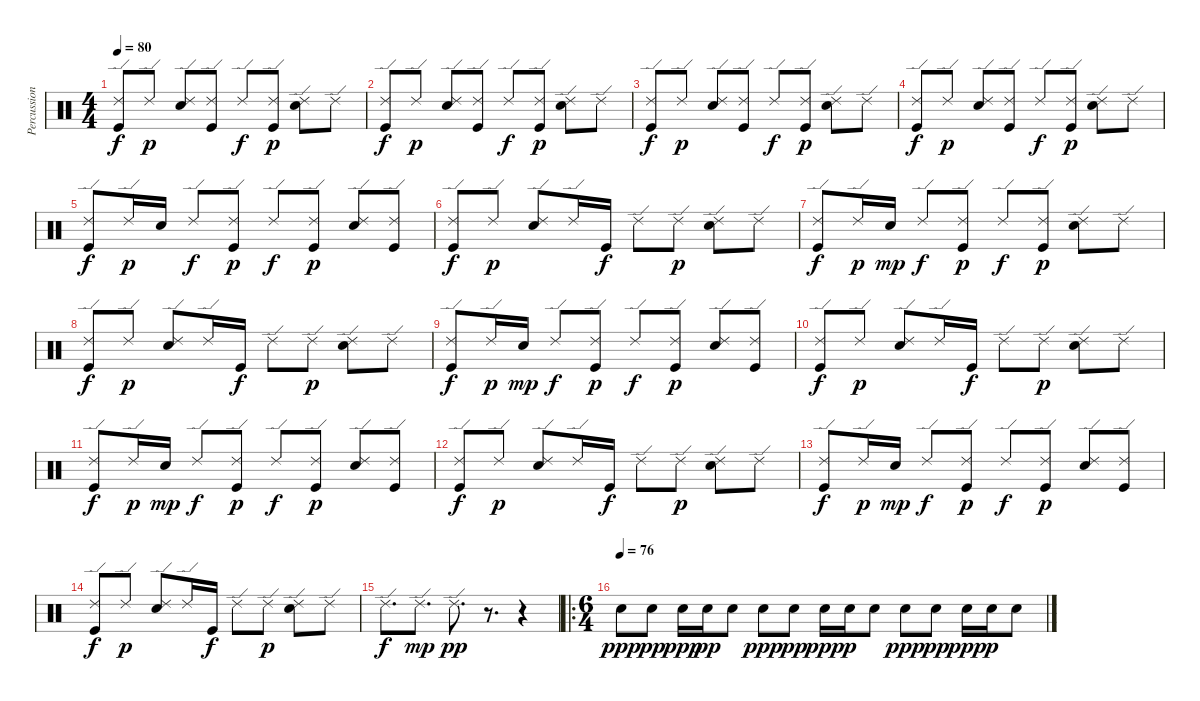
\track ("Percussion" "Percussion") {instrument percussion}
\staff {score}
\articulation defaults
\ts (4 4)
\tempo 80
\clef neutral
\ks c
("Ride (edge) 2" "Kick (hit)").8{dy f} "Ride (edge) 2".8{dy p} ("Ride (edge) 2" "Snare (hit) 2").8 ("Ride (edge) 2" "Kick (hit)").8 "Ride (edge) 2".8{dy f} ("Ride (edge) 2" "Kick (hit)").8{dy p} ("Ride (edge) 2" "Snare (hit) 2").8 "Ride (edge) 2".8 |
("Ride (edge) 2" "Kick (hit)").8{dy f} "Ride (edge) 2".8{dy p} ("Ride (edge) 2" "Snare (hit) 2").8 ("Ride (edge) 2" "Kick (hit)").8 "Ride (edge) 2".8{dy f} ("Ride (edge) 2" "Kick (hit)").8{dy p} ("Ride (edge) 2" "Snare (hit) 2").8 "Ride (edge) 2".8 |
("Ride (edge) 2" "Kick (hit)").8{dy f} "Ride (edge) 2".8{dy p} ("Ride (edge) 2" "Snare (hit) 2").8 ("Ride (edge) 2" "Kick (hit)").8 "Ride (edge) 2".8{dy f} ("Ride (edge) 2" "Kick (hit)").8{dy p} ("Ride (edge) 2" "Snare (hit) 2").8 "Ride (edge) 2".8 |
("Ride (edge) 2" "Kick (hit)").8{dy f} "Ride (edge) 2".8{dy p} ("Ride (edge) 2" "Snare (hit) 2").8 ("Ride (edge) 2" "Kick (hit)").8 "Ride (edge) 2".8{dy f} ("Ride (edge) 2" "Kick (hit)").8{dy p} ("Ride (edge) 2" "Snare (hit) 2").8 "Ride (edge) 2".8 |
("Ride (edge) 2" "Kick (hit)").8{dy f} "Ride (edge) 2".16{dy p} "Snare (hit) 2".16 "Ride (edge) 2".8{dy f} ("Ride (edge) 2" "Kick (hit)").8{dy p} "Ride (edge) 2".8{dy f} ("Ride (edge) 2" "Kick (hit)").8{dy p} ("Ride (edge) 2" "Snare (hit) 2").8 ("Ride (edge) 2" "Kick (hit)").8 |
("Ride (edge) 2" "Kick (hit)").8{dy f} "Ride (edge) 2".8{dy p} ("Ride (edge) 2" "Snare (hit) 2").8 "Ride (edge) 2".16 "Kick (hit)".16{dy f} "Ride (edge) 2".8 "Ride (edge) 2".8{dy p} ("Ride (edge) 2" "Snare (hit) 2").8 "Ride (edge) 2".8 |
("Ride (edge) 2" "Kick (hit)").8{dy f} "Ride (edge) 2".16{dy p} "Snare (hit) 2".16{dy mp} "Ride (edge) 2".8{dy f} ("Ride (edge) 2" "Kick (hit)").8{dy p} "Ride (edge) 2".8{dy f} ("Ride (edge) 2" "Kick (hit)").8{dy p} ("Ride (edge) 2" "Snare (hit) 2").8 "Ride (edge) 2".8 |
("Ride (edge) 2" "Kick (hit)").8{dy f} "Ride (edge) 2".8{dy p} ("Ride (edge) 2" "Snare (hit) 2").8 "Ride (edge) 2".16 "Kick (hit)".16{dy f} "Ride (edge) 2".8 "Ride (edge) 2".8{dy p} ("Ride (edge) 2" "Snare (hit) 2").8 "Ride (edge) 2".8 |
("Ride (edge) 2" "Kick (hit)").8{dy f} "Ride (edge) 2".16{dy p} "Snare (hit) 2".16{dy mp} "Ride (edge) 2".8{dy f} ("Ride (edge) 2" "Kick (hit)").8{dy p} "Ride (edge) 2".8{dy f} ("Ride (edge) 2" "Kick (hit)").8{dy p} ("Ride (edge) 2" "Snare (hit) 2").8 ("Ride (edge) 2" "Kick (hit)").8 |
("Ride (edge) 2" "Kick (hit)").8{dy f} "Ride (edge) 2".8{dy p} ("Ride (edge) 2" "Snare (hit) 2").8 "Ride (edge) 2".16 "Kick (hit)".16{dy f} "Ride (edge) 2".8 "Ride (edge) 2".8{dy p} ("Ride (edge) 2" "Snare (hit) 2").8 "Ride (edge) 2".8 |
("Ride (edge) 2" "Kick (hit)").8{dy f} "Ride (edge) 2".16{dy p} "Snare (hit) 2".16{dy mp} "Ride (edge) 2".8{dy f} ("Ride (edge) 2" "Kick (hit)").8{dy p} "Ride (edge) 2".8{dy f} ("Ride (edge) 2" "Kick (hit)").8{dy p} ("Ride (edge) 2" "Snare (hit) 2").8 ("Ride (edge) 2" "Kick (hit)").8 |
("Ride (edge) 2" "Kick (hit)").8{dy f} "Ride (edge) 2".8{dy p} ("Ride (edge) 2" "Snare (hit) 2").8 "Ride (edge) 2".16 "Kick (hit)".16{dy f} "Ride (edge) 2".8 "Ride (edge) 2".8{dy p} ("Ride (edge) 2" "Snare (hit) 2").8 "Ride (edge) 2".8 |
("Ride (edge) 2" "Kick (hit)").8{dy f} "Ride (edge) 2".16{dy p} "Snare (hit) 2".16{dy mp} "Ride (edge) 2".8{dy f} ("Ride (edge) 2" "Kick (hit)").8{dy p} "Ride (edge) 2".8{dy f} ("Ride (edge) 2" "Kick (hit)").8{dy p} ("Ride (edge) 2" "Snare (hit) 2").8 ("Ride (edge) 2" "Kick (hit)").8 |
("Ride (edge) 2" "Kick (hit)").8{dy f} "Ride (edge) 2".8{dy p} ("Ride (edge) 2" "Snare (hit) 2").8 "Ride (edge) 2".16 "Kick (hit)".16{dy f} "Ride (edge) 2".8 "Ride (edge) 2".8{dy p} ("Ride (edge) 2" "Snare (hit) 2").8 "Ride (edge) 2".8 |
"Ride (edge) 2".8{d dy f} "Ride (edge) 2".8{d dy mp} "Ride (edge) 2".8{d dy pp} r.8{d} r.4 |
\ro
\ts (6 4)
\tempo (76)
"Snare (hit) 2".8{dy ppp} "Snare (hit) 2".8{dy pp} "Snare (hit) 2".16{dy ppp} "Snare (hit) 2".16{dy pp} "Snare (hit) 2".8 "Snare (hit) 2".8{dy ppp} "Snare (hit) 2".8{dy pp} "Snare (hit) 2".16{dy ppp} "Snare (hit) 2".16{dy p} "Snare (hit) 2".8 "Snare (hit) 2".8{dy ppp} "Snare (hit) 2".8{dy pp} "Snare (hit) 2".16{dy ppp} "Snare (hit) 2".16{dy p} "Snare (hit) 2".8
